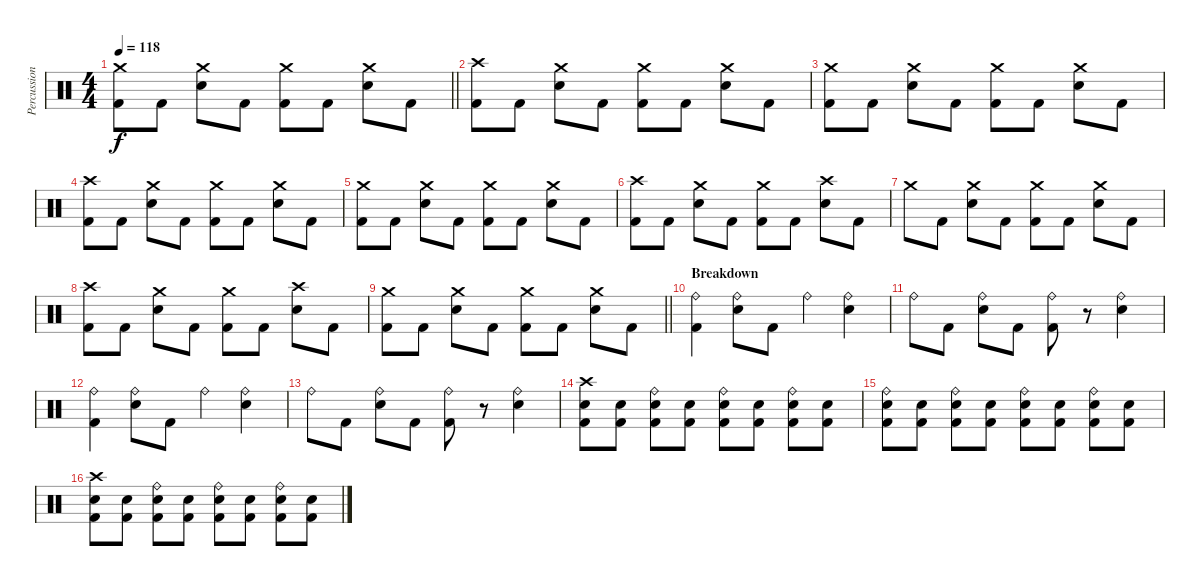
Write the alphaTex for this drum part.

\track ("Percussion" "Percussion") {instrument percussion}
\staff {score}
\articulation defaults
\ts (4 4)
\tempo 118
\clef neutral
\barLineRight lightlight
\ks c
("Crash medium (hit)" "Kick (hit) 2").8{dy f} "Kick (hit) 2".8 ("Crash medium (hit)" "Electric Snare (hit)").8 "Kick (hit) 2".8 ("Crash medium (hit)" "Kick (hit) 2").8 "Kick (hit) 2".8 ("Crash medium (hit)" "Electric Snare (hit)").8 "Kick (hit) 2".8 |
("Crash high (hit)" "Kick (hit) 2").8 "Kick (hit) 2".8 ("Crash medium (hit)" "Electric Snare (hit)").8 "Kick (hit) 2".8 ("Crash medium (hit)" "Kick (hit) 2").8 "Kick (hit) 2".8 ("Crash medium (hit)" "Electric Snare (hit)").8 "Kick (hit) 2".8 |
("Crash medium (hit)" "Kick (hit) 2").8 "Kick (hit) 2".8 ("Crash medium (hit)" "Electric Snare (hit)").8 "Kick (hit) 2".8 ("Crash medium (hit)" "Kick (hit) 2").8 "Kick (hit) 2".8 ("Crash medium (hit)" "Electric Snare (hit)").8 "Kick (hit) 2".8 |
("Crash high (hit)" "Kick (hit) 2").8 "Kick (hit) 2".8 ("Crash medium (hit)" "Electric Snare (hit)").8 "Kick (hit) 2".8 ("Crash medium (hit)" "Kick (hit) 2").8 "Kick (hit) 2".8 ("Crash medium (hit)" "Electric Snare (hit)").8 "Kick (hit) 2".8 |
("Crash medium (hit)" "Kick (hit) 2").8 "Kick (hit) 2".8 ("Crash medium (hit)" "Electric Snare (hit)").8 "Kick (hit) 2".8 ("Crash medium (hit)" "Kick (hit) 2").8 "Kick (hit) 2".8 ("Crash medium (hit)" "Electric Snare (hit)").8 "Kick (hit) 2".8 |
("Crash high (hit)" "Kick (hit) 2").8 "Kick (hit) 2".8 ("Crash medium (hit)" "Electric Snare (hit)").8 "Kick (hit) 2".8 ("Crash medium (hit)" "Kick (hit) 2").8 "Kick (hit) 2".8 ("Crash high (hit)" "Electric Snare (hit)").8 "Kick (hit) 2".8 |
"Crash medium (hit)".8 "Kick (hit) 2".8 ("Crash medium (hit)" "Electric Snare (hit)").8 "Kick (hit) 2".8 ("Crash medium (hit)" "Kick (hit) 2").8 "Kick (hit) 2".8 ("Crash medium (hit)" "Electric Snare (hit)").8 "Kick (hit) 2".8 |
("Crash high (hit)" "Kick (hit) 2").8 "Kick (hit) 2".8 ("Crash medium (hit)" "Electric Snare (hit)").8 "Kick (hit) 2".8 ("Crash medium (hit)" "Kick (hit) 2").8 "Kick (hit) 2".8 ("Crash high (hit)" "Electric Snare (hit)").8 "Kick (hit) 2".8 |
\barLineRight lightlight
("Crash medium (hit)" "Kick (hit) 2").8 "Kick (hit) 2".8 ("Crash medium (hit)" "Electric Snare (hit)").8 "Kick (hit) 2".8 ("Crash medium (hit)" "Kick (hit) 2").8 "Kick (hit) 2".8 ("Crash medium (hit)" "Electric Snare (hit)").8 "Kick (hit) 2".8 |
\section ("" "Breakdown")
("Ride (bell)" "Kick (hit) 2").4 ("Ride (bell)" "Electric Snare (hit)").8 "Kick (hit) 2".8 "Ride (bell)".4 ("Ride (bell)" "Electric Snare (hit)").4 |
"Ride (bell)".8 "Kick (hit) 2".8 ("Ride (bell)" "Electric Snare (hit)").8 "Kick (hit) 2".8 ("Ride (bell)" "Kick (hit) 2").8 r.8 ("Ride (bell)" "Electric Snare (hit)").4 |
("Ride (bell)" "Kick (hit) 2").4 ("Ride (bell)" "Electric Snare (hit)").8 "Kick (hit) 2".8 "Ride (bell)".4 ("Ride (bell)" "Electric Snare (hit)").4 |
"Ride (bell)".8 "Kick (hit) 2".8 ("Ride (bell)" "Electric Snare (hit)").8 "Kick (hit) 2".8 ("Ride (bell)" "Kick (hit) 2").8 r.8 ("Ride (bell)" "Electric Snare (hit)").4 |
("Crash high (hit)" "Electric Snare (hit)" "Kick (hit) 2").8 ("Electric Snare (hit)" "Kick (hit) 2").8 ("Ride (bell)" "Electric Snare (hit)" "Kick (hit) 2").8 ("Electric Snare (hit)" "Kick (hit) 2").8 ("Ride (bell)" "Electric Snare (hit)" "Kick (hit) 2").8 ("Electric Snare (hit)" "Kick (hit) 2").8 ("Ride (bell)" "Electric Snare (hit)" "Kick (hit) 2").8 ("Electric Snare (hit)" "Kick (hit) 2").8 |
("Ride (bell)" "Electric Snare (hit)" "Kick (hit) 2").8 ("Electric Snare (hit)" "Kick (hit) 2").8 ("Ride (bell)" "Electric Snare (hit)" "Kick (hit) 2").8 ("Electric Snare (hit)" "Kick (hit) 2").8 ("Ride (bell)" "Electric Snare (hit)" "Kick (hit) 2").8 ("Electric Snare (hit)" "Kick (hit) 2").8 ("Ride (bell)" "Electric Snare (hit)" "Kick (hit) 2").8 ("Electric Snare (hit)" "Kick (hit) 2").8 |
("Crash high (hit)" "Electric Snare (hit)" "Kick (hit) 2").8 ("Electric Snare (hit)" "Kick (hit) 2").8 ("Ride (bell)" "Electric Snare (hit)" "Kick (hit) 2").8 ("Electric Snare (hit)" "Kick (hit) 2").8 ("Ride (bell)" "Electric Snare (hit)" "Kick (hit) 2").8 ("Electric Snare (hit)" "Kick (hit) 2").8 ("Ride (bell)" "Electric Snare (hit)" "Kick (hit) 2").8 ("Electric Snare (hit)" "Kick (hit) 2").8
